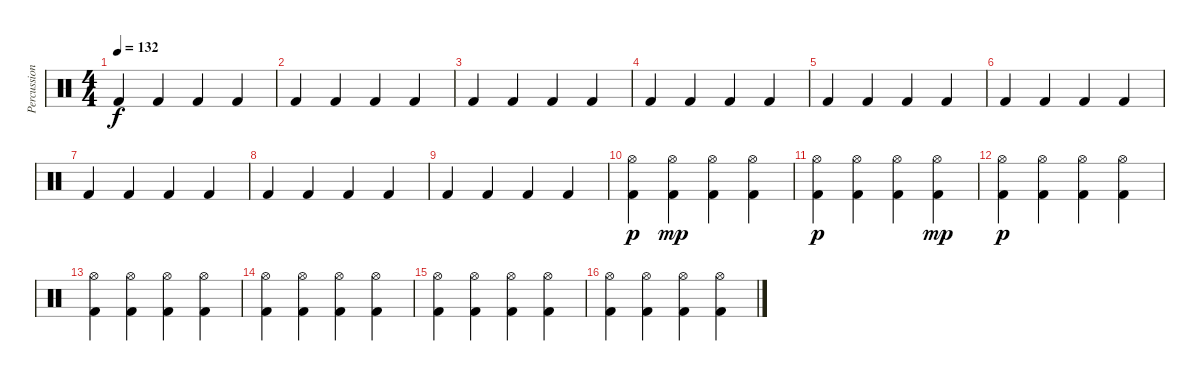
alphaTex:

\track ("Percussion" "Percussion") {instrument percussion}
\staff {score}
\articulation defaults
\ts (4 4)
\tempo 132
\clef neutral
\ks c "Kick (hit) 2".4{dy f} "Kick (hit) 2".4 "Kick (hit) 2".4 "Kick (hit) 2".4
|
"Kick (hit) 2".4 "Kick (hit) 2".4 "Kick (hit) 2".4 "Kick (hit) 2".4 |
"Kick (hit) 2".4 "Kick (hit) 2".4 "Kick (hit) 2".4 "Kick (hit) 2".4 |
"Kick (hit) 2".4 "Kick (hit) 2".4 "Kick (hit) 2".4 "Kick (hit) 2".4 |
"Kick (hit) 2".4 "Kick (hit) 2".4 "Kick (hit) 2".4 "Kick (hit) 2".4 |
"Kick (hit) 2".4 "Kick (hit) 2".4 "Kick (hit) 2".4 "Kick (hit) 2".4 |
"Kick (hit) 2".4 "Kick (hit) 2".4 "Kick (hit) 2".4 "Kick (hit) 2".4 |
"Kick (hit) 2".4 "Kick (hit) 2".4 "Kick (hit) 2".4 "Kick (hit) 2".4 |
"Kick (hit) 2".4 "Kick (hit) 2".4 "Kick (hit) 2".4 "Kick (hit) 2".4 |
("Hi-Hat (open)" "Kick (hit) 2").4{dy p} ("Hi-Hat (open)" "Kick (hit) 2").4{dy mp} ("Hi-Hat (open)" "Kick (hit) 2").4 ("Hi-Hat (open)" "Kick (hit) 2").4 |
("Hi-Hat (open)" "Kick (hit) 2").4{dy p} ("Hi-Hat (open)" "Kick (hit) 2").4 ("Hi-Hat (open)" "Kick (hit) 2").4 ("Hi-Hat (open)" "Kick (hit) 2").4{dy mp} |
("Hi-Hat (open)" "Kick (hit) 2").4{dy p} ("Hi-Hat (open)" "Kick (hit) 2").4 ("Hi-Hat (open)" "Kick (hit) 2").4 ("Hi-Hat (open)" "Kick (hit) 2").4 |
("Hi-Hat (open)" "Kick (hit) 2").4 ("Hi-Hat (open)" "Kick (hit) 2").4 ("Hi-Hat (open)" "Kick (hit) 2").4 ("Hi-Hat (open)" "Kick (hit) 2").4 |
("Hi-Hat (open)" "Kick (hit) 2").4 ("Hi-Hat (open)" "Kick (hit) 2").4 ("Hi-Hat (open)" "Kick (hit) 2").4 ("Hi-Hat (open)" "Kick (hit) 2").4 |
("Hi-Hat (open)" "Kick (hit) 2").4 ("Hi-Hat (open)" "Kick (hit) 2").4 ("Hi-Hat (open)" "Kick (hit) 2").4 ("Hi-Hat (open)" "Kick (hit) 2").4 |
("Hi-Hat (open)" "Kick (hit) 2").4 ("Hi-Hat (open)" "Kick (hit) 2").4 ("Hi-Hat (open)" "Kick (hit) 2").4 ("Hi-Hat (open)" "Kick (hit) 2").4
